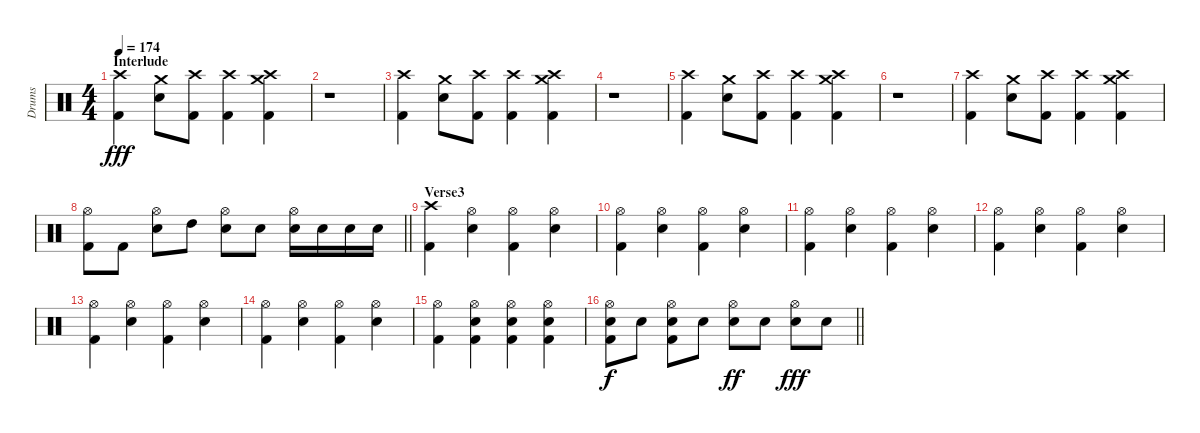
\track ("Drums" "Drums") {instrument percussion}
\staff {score}
\articulation defaults
\ts (4 4)
\section ("" "Interlude")
\tempo 174
\clef neutral
\ks c
("Crash high (hit)" "Kick (hit) 2").4{dy fff} ("Crash medium (hit)" "Electric Snare (hit)").8 ("Crash high (hit)" "Kick (hit) 2").8 ("Crash high (hit)" "Kick (hit) 2").4 ("Crash medium (hit)" "Crash high (hit)" "Kick (hit) 2").4 |
r.1 |
("Crash high (hit)" "Kick (hit) 2").4 ("Crash medium (hit)" "Electric Snare (hit)").8 ("Crash high (hit)" "Kick (hit) 2").8 ("Crash high (hit)" "Kick (hit) 2").4 ("Crash medium (hit)" "Crash high (hit)" "Kick (hit) 2").4 |
r.1 |
("Crash high (hit)" "Kick (hit) 2").4 ("Crash medium (hit)" "Electric Snare (hit)").8 ("Crash high (hit)" "Kick (hit) 2").8 ("Crash high (hit)" "Kick (hit) 2").4 ("Crash medium (hit)" "Crash high (hit)" "Kick (hit) 2").4 |
r.1 |
("Crash high (hit)" "Kick (hit) 2").4 ("Crash medium (hit)" "Electric Snare (hit)").8 ("Crash high (hit)" "Kick (hit) 2").8 ("Crash high (hit)" "Kick (hit) 2").4 ("Crash medium (hit)" "Crash high (hit)" "Kick (hit) 2").4 |
\barLineRight lightlight
("Hi-Hat (open)" "Kick (hit) 2").8 "Kick (hit) 2".8 ("Hi-Hat (open)" "Electric Snare (hit)").8 "High Tom (hit)".8 ("Hi-Hat (open)" "Electric Snare (hit)").8 "Electric Snare (hit)".8 ("Hi-Hat (open)" "Electric Snare (hit)").16 "Electric Snare (hit)".16 "Electric Snare (hit)".16 "Electric Snare (hit)".16 |
\section ("" "Verse3")
("Crash high (hit)" "Kick (hit) 2").4 ("Hi-Hat (open)" "Electric Snare (hit)").4 ("Hi-Hat (open)" "Kick (hit) 2").4 ("Hi-Hat (open)" "Electric Snare (hit)").4 |
("Hi-Hat (open)" "Kick (hit) 2").4 ("Hi-Hat (open)" "Electric Snare (hit)").4 ("Hi-Hat (open)" "Kick (hit) 2").4 ("Hi-Hat (open)" "Electric Snare (hit)").4 |
("Hi-Hat (open)" "Kick (hit) 2").4 ("Hi-Hat (open)" "Electric Snare (hit)").4 ("Hi-Hat (open)" "Kick (hit) 2").4 ("Hi-Hat (open)" "Electric Snare (hit)").4 |
("Hi-Hat (open)" "Kick (hit) 2").4 ("Hi-Hat (open)" "Electric Snare (hit)").4 ("Hi-Hat (open)" "Kick (hit) 2").4 ("Hi-Hat (open)" "Electric Snare (hit)").4 |
("Hi-Hat (open)" "Kick (hit) 2").4 ("Hi-Hat (open)" "Electric Snare (hit)").4 ("Hi-Hat (open)" "Kick (hit) 2").4 ("Hi-Hat (open)" "Electric Snare (hit)").4 |
("Hi-Hat (open)" "Kick (hit) 2").4 ("Hi-Hat (open)" "Electric Snare (hit)").4 ("Hi-Hat (open)" "Kick (hit) 2").4 ("Hi-Hat (open)" "Electric Snare (hit)").4 |
("Hi-Hat (open)" "Kick (hit) 2").4 ("Hi-Hat (open)" "Electric Snare (hit)" "Kick (hit) 2").4 ("Hi-Hat (open)" "Electric Snare (hit)" "Kick (hit) 2").4 ("Hi-Hat (open)" "Electric Snare (hit)" "Kick (hit) 2").4 |
\barLineRight lightlight
("Hi-Hat (open)" "Electric Snare (hit)" "Kick (hit) 2").8{dy f} "Electric Snare (hit)".8 ("Hi-Hat (open)" "Electric Snare (hit)" "Kick (hit) 2").8 "Electric Snare (hit)".8 ("Hi-Hat (open)" "Electric Snare (hit)").8{dy ff} "Electric Snare (hit)".8 ("Hi-Hat (open)" "Electric Snare (hit)").8{dy fff} "Electric Snare (hit)".8
